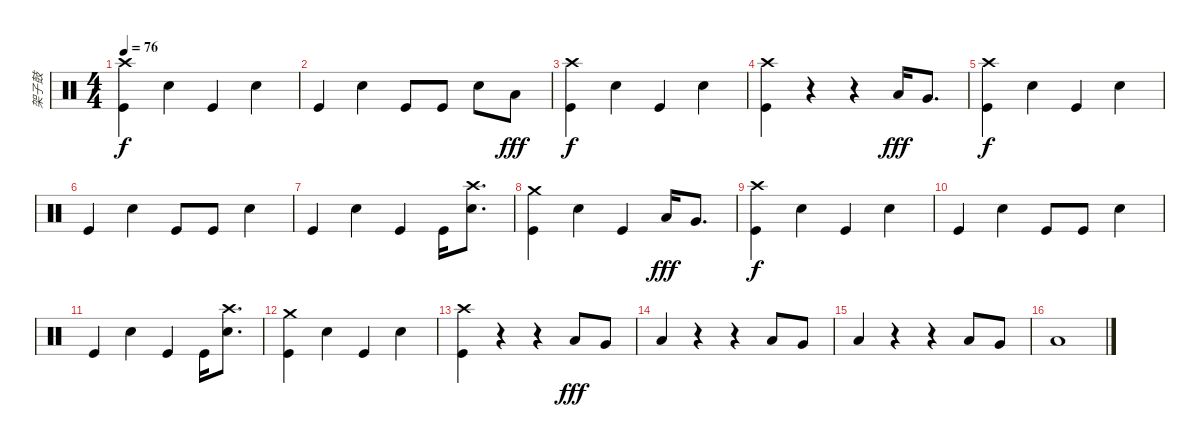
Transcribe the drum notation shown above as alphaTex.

\track ("架子鼓" "架子鼓") {instrument percussion}
\staff {score}
\articulation defaults
\ts (4 4)
\tempo 76
\clef neutral
\ks c
("Kick (hit)" "Crash high (hit)").4{dy f} "Electric Snare (hit)".4 "Kick (hit)".4 "Electric Snare (hit)".4 |
"Kick (hit)".4 "Electric Snare (hit)".4 "Kick (hit)".8 "Kick (hit)".8 "Electric Snare (hit)".8 "Low Floor Tom (hit)".8{dy fff} |
("Kick (hit)" "Crash high (hit)").4{dy f} "Electric Snare (hit)".4 "Kick (hit)".4 "Electric Snare (hit)".4 |
("Kick (hit)" "Crash high (hit)").4 r.4 r.4 "Low Floor Tom (hit)".16{dy fff} "Very Low Tom (hit)".8{d} |
("Kick (hit)" "Crash high (hit)").4{dy f} "Electric Snare (hit)".4 "Kick (hit)".4 "Electric Snare (hit)".4 |
"Kick (hit)".4 "Electric Snare (hit)".4 "Kick (hit)".8 "Kick (hit)".8 "Electric Snare (hit)".4 |
"Kick (hit)".4 "Electric Snare (hit)".4 "Kick (hit)".4 "Kick (hit)".16 ("Electric Snare (hit)" "Crash high (hit)").8{d} |
("Kick (hit)" "Crash medium (hit)").4 "Electric Snare (hit)".4 "Kick (hit)".4 "Low Floor Tom (hit)".16{dy fff} "Very Low Tom (hit)".8{d} |
("Kick (hit)" "Crash high (hit)").4{dy f} "Electric Snare (hit)".4 "Kick (hit)".4 "Electric Snare (hit)".4 |
"Kick (hit)".4 "Electric Snare (hit)".4 "Kick (hit)".8 "Kick (hit)".8 "Electric Snare (hit)".4 |
"Kick (hit)".4 "Electric Snare (hit)".4 "Kick (hit)".4 "Kick (hit)".16 ("Electric Snare (hit)" "Crash high (hit)").8{d} |
("Kick (hit)" "Crash medium (hit)").4 "Electric Snare (hit)".4 "Kick (hit)".4 "Electric Snare (hit)".4 |
("Kick (hit)" "Crash high (hit)").4 r.4 r.4 "Low Tom (hit)".8{dy fff} "Very Low Tom (hit)".8 |
"Low Floor Tom (hit)".4 r.4 r.4 "Low Tom (hit)".8 "Very Low Tom (hit)".8 |
"Low Floor Tom (hit)".4 r.4 r.4 "Low Tom (hit)".8 "Very Low Tom (hit)".8 |
"Low Floor Tom (hit)".1
